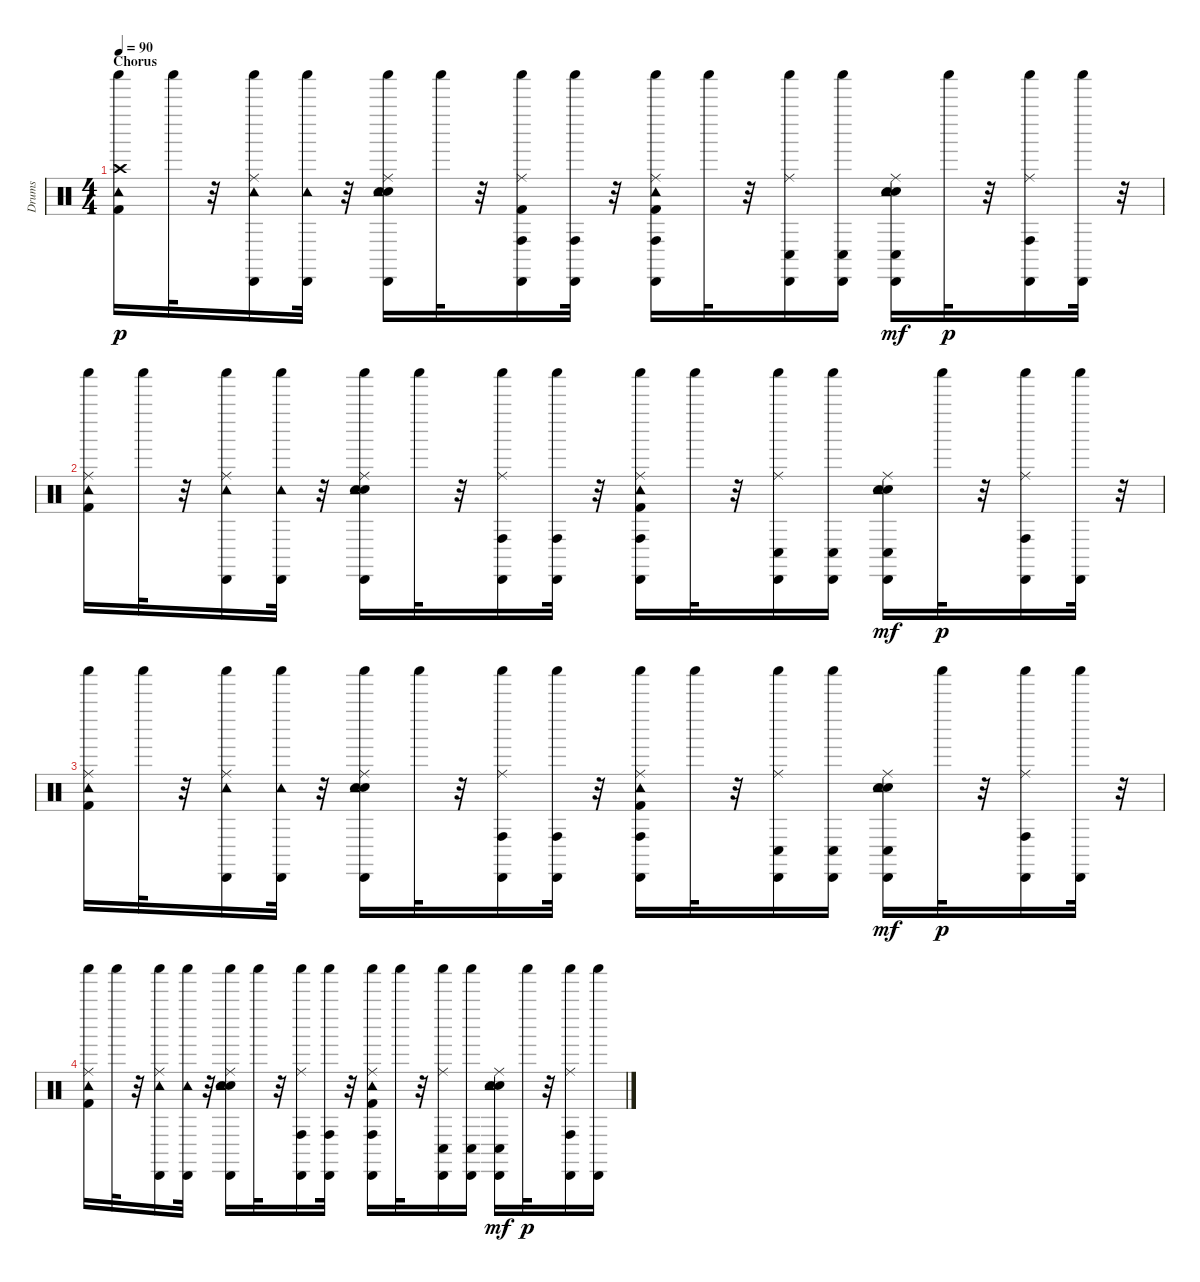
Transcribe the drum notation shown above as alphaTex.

\track ("Drums" "Drums") {instrument percussion}
\staff {score}
\articulation defaults
\ts (4 4)
\section ("" "Chorus")
\tempo 90
\clef neutral
\ks c
("Crash high (hit)" "Kick (hit) 2" "Tambourine (hit)" "Shaker (hit)").16{dy p} "Shaker (hit)".32 r.32 ("Ride (middle)" "Tambourine (hit)" "Cabasa (hit)" "Shaker (hit)").16 ("Tambourine (hit)" "Cabasa (hit)" "Shaker (hit)").32 r.32 ("Electric Snare (hit)" "Ride (middle)" "Snare (hit) 2" "Tambourine (hit)" "Cabasa (hit)" "Shaker (hit)").16 "Shaker (hit)".32 r.32 ("Ride (middle)" "Kick (hit) 2" "Cabasa (hit)" "Conga high (hit)" "Shaker (hit)").16 ("Cabasa (hit)" "Conga high (hit)" "Shaker (hit)").32 r.32 ("Ride (middle)" "Kick (hit) 2" "Cabasa (hit)" "Conga high (hit)" "Tambourine (hit)" "Shaker (hit)").16 "Shaker (hit)".32 r.32 ("Ride (middle)" "Cabasa (hit)" "Conga low (hit)" "Shaker (hit)").16 ("Cabasa (hit)" "Conga low (hit)" "Shaker (hit)").16 ("Electric Snare (hit)" "Ride (middle)" "Snare (hit) 2" "Cabasa (hit)" "Conga low (hit)" "Tambourine (hit)").16{dy mf} "Shaker (hit)".32{dy p} r.32 ("Ride (middle)" "Cabasa (hit)" "Conga high (hit)" "Shaker (hit)").16 ("Cabasa (hit)" "Shaker (hit)").32 r.32 |
("Ride (middle)" "Kick (hit) 2" "Tambourine (hit)" "Shaker (hit)").16 "Shaker (hit)".32 r.32 ("Ride (middle)" "Tambourine (hit)" "Cabasa (hit)" "Shaker (hit)").16 ("Tambourine (hit)" "Cabasa (hit)" "Shaker (hit)").32 r.32 ("Electric Snare (hit)" "Ride (middle)" "Snare (hit) 2" "Tambourine (hit)" "Cabasa (hit)" "Shaker (hit)").16 "Shaker (hit)".32 r.32 ("Ride (middle)" "Cabasa (hit)" "Conga high (hit)" "Shaker (hit)").16 ("Cabasa (hit)" "Conga high (hit)" "Shaker (hit)").32 r.32 ("Ride (middle)" "Kick (hit) 2" "Cabasa (hit)" "Conga high (hit)" "Tambourine (hit)" "Shaker (hit)").16 "Shaker (hit)".32 r.32 ("Ride (middle)" "Cabasa (hit)" "Conga low (hit)" "Shaker (hit)").16 ("Cabasa (hit)" "Conga low (hit)" "Shaker (hit)").16 ("Electric Snare (hit)" "Ride (middle)" "Snare (hit) 2" "Cabasa (hit)" "Conga low (hit)" "Tambourine (hit)").16{dy mf} "Shaker (hit)".32{dy p} r.32 ("Ride (middle)" "Cabasa (hit)" "Conga high (hit)" "Shaker (hit)").16 ("Cabasa (hit)" "Shaker (hit)").32 r.32 |
("Ride (middle)" "Kick (hit) 2" "Tambourine (hit)" "Shaker (hit)").16 "Shaker (hit)".32 r.32 ("Ride (middle)" "Tambourine (hit)" "Cabasa (hit)" "Shaker (hit)").16 ("Tambourine (hit)" "Cabasa (hit)" "Shaker (hit)").32 r.32 ("Electric Snare (hit)" "Ride (middle)" "Snare (hit) 2" "Tambourine (hit)" "Cabasa (hit)" "Shaker (hit)").16 "Shaker (hit)".32 r.32 ("Ride (middle)" "Cabasa (hit)" "Conga high (hit)" "Shaker (hit)").16 ("Cabasa (hit)" "Conga high (hit)" "Shaker (hit)").32 r.32 ("Ride (middle)" "Kick (hit) 2" "Cabasa (hit)" "Conga high (hit)" "Tambourine (hit)" "Shaker (hit)").16 "Shaker (hit)".32 r.32 ("Ride (middle)" "Cabasa (hit)" "Conga low (hit)" "Shaker (hit)").16 ("Cabasa (hit)" "Conga low (hit)" "Shaker (hit)").16 ("Electric Snare (hit)" "Ride (middle)" "Snare (hit) 2" "Cabasa (hit)" "Conga low (hit)" "Tambourine (hit)").16{dy mf} "Shaker (hit)".32{dy p} r.32 ("Ride (middle)" "Cabasa (hit)" "Conga high (hit)" "Shaker (hit)").16 ("Cabasa (hit)" "Shaker (hit)").32 r.32 |
("Ride (middle)" "Kick (hit) 2" "Tambourine (hit)" "Shaker (hit)").16 "Shaker (hit)".32 r.32 ("Ride (middle)" "Tambourine (hit)" "Cabasa (hit)" "Shaker (hit)").16 ("Tambourine (hit)" "Cabasa (hit)" "Shaker (hit)").32 r.32 ("Electric Snare (hit)" "Ride (middle)" "Snare (hit) 2" "Tambourine (hit)" "Cabasa (hit)" "Shaker (hit)").16 "Shaker (hit)".32 r.32 ("Ride (middle)" "Cabasa (hit)" "Conga high (hit)" "Shaker (hit)").16 ("Cabasa (hit)" "Conga high (hit)" "Shaker (hit)").32 r.32 ("Ride (middle)" "Kick (hit) 2" "Cabasa (hit)" "Conga high (hit)" "Tambourine (hit)" "Shaker (hit)").16 "Shaker (hit)".32 r.32 ("Ride (middle)" "Cabasa (hit)" "Conga low (hit)" "Shaker (hit)").16 ("Cabasa (hit)" "Conga low (hit)" "Shaker (hit)").16 ("Electric Snare (hit)" "Ride (middle)" "Snare (hit) 2" "Cabasa (hit)" "Conga low (hit)" "Tambourine (hit)").16{dy mf} "Shaker (hit)".32{dy p} r.32 ("Ride (middle)" "Cabasa (hit)" "Conga high (hit)" "Shaker (hit)").16 ("Cabasa (hit)" "Shaker (hit)").16
